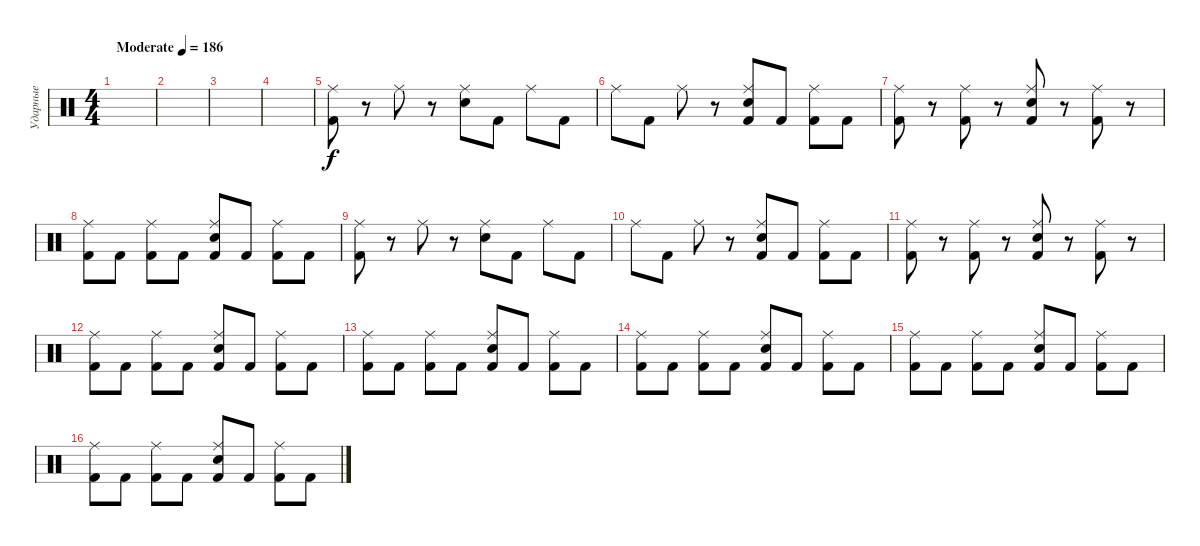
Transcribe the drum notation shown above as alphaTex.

\track ("Ударные" "Ударные") {instrument percussion}
\staff {score}
\articulation defaults
\ts (4 4)
\tempo (186 "Moderate")
\clef neutral
\ks c
|
|
|
|
("Kick (hit) 2" "Ride (middle)").8 r.8 "Ride (middle)".8 r.8 ("Snare (hit) 2" "Ride (middle)").8 "Kick (hit) 2".8 "Ride (middle)".8 "Kick (hit) 2".8 |
"Ride (middle)".8 "Kick (hit) 2".8 "Ride (middle)".8 r.8 ("Kick (hit) 2" "Snare (hit) 2" "Ride (middle)").8 "Kick (hit) 2".8 ("Kick (hit) 2" "Ride (middle)").8 "Kick (hit) 2".8 |
("Kick (hit) 2" "Ride (middle)").8 r.8 ("Kick (hit) 2" "Ride (middle)").8 r.8 ("Kick (hit) 2" "Snare (hit) 2" "Ride (middle)").8 r.8 ("Kick (hit) 2" "Ride (middle)").8 r.8 |
("Kick (hit) 2" "Ride (middle)").8 "Kick (hit) 2".8 ("Kick (hit) 2" "Ride (middle)").8 "Kick (hit) 2".8 ("Kick (hit) 2" "Snare (hit) 2" "Ride (middle)").8 "Kick (hit) 2".8 ("Kick (hit) 2" "Ride (middle)").8 "Kick (hit) 2".8 |
("Kick (hit) 2" "Ride (middle)").8 r.8 "Ride (middle)".8 r.8 ("Snare (hit) 2" "Ride (middle)").8 "Kick (hit) 2".8 "Ride (middle)".8 "Kick (hit) 2".8 |
"Ride (middle)".8 "Kick (hit) 2".8 "Ride (middle)".8 r.8 ("Kick (hit) 2" "Snare (hit) 2" "Ride (middle)").8 "Kick (hit) 2".8 ("Kick (hit) 2" "Ride (middle)").8 "Kick (hit) 2".8 |
("Kick (hit) 2" "Ride (middle)").8 r.8 ("Kick (hit) 2" "Ride (middle)").8 r.8 ("Kick (hit) 2" "Snare (hit) 2" "Ride (middle)").8 r.8 ("Kick (hit) 2" "Ride (middle)").8 r.8 |
("Kick (hit) 2" "Ride (middle)").8 "Kick (hit) 2".8 ("Kick (hit) 2" "Ride (middle)").8 "Kick (hit) 2".8 ("Kick (hit) 2" "Snare (hit) 2" "Ride (middle)").8 "Kick (hit) 2".8 ("Kick (hit) 2" "Ride (middle)").8 "Kick (hit) 2".8 |
("Kick (hit) 2" "Ride (middle)").8 "Kick (hit) 2".8 ("Kick (hit) 2" "Ride (middle)").8 "Kick (hit) 2".8 ("Kick (hit) 2" "Snare (hit) 2" "Ride (middle)").8 "Kick (hit) 2".8 ("Kick (hit) 2" "Ride (middle)").8 "Kick (hit) 2".8 |
("Kick (hit) 2" "Ride (middle)").8 "Kick (hit) 2".8 ("Kick (hit) 2" "Ride (middle)").8 "Kick (hit) 2".8 ("Kick (hit) 2" "Snare (hit) 2" "Ride (middle)").8 "Kick (hit) 2".8 ("Kick (hit) 2" "Ride (middle)").8 "Kick (hit) 2".8 |
("Kick (hit) 2" "Ride (middle)").8 "Kick (hit) 2".8 ("Kick (hit) 2" "Ride (middle)").8 "Kick (hit) 2".8 ("Kick (hit) 2" "Snare (hit) 2" "Ride (middle)").8 "Kick (hit) 2".8 ("Kick (hit) 2" "Ride (middle)").8 "Kick (hit) 2".8 |
("Kick (hit) 2" "Ride (middle)").8 "Kick (hit) 2".8 ("Kick (hit) 2" "Ride (middle)").8 "Kick (hit) 2".8 ("Kick (hit) 2" "Snare (hit) 2" "Ride (middle)").8 "Kick (hit) 2".8 ("Kick (hit) 2" "Ride (middle)").8 "Kick (hit) 2".8
